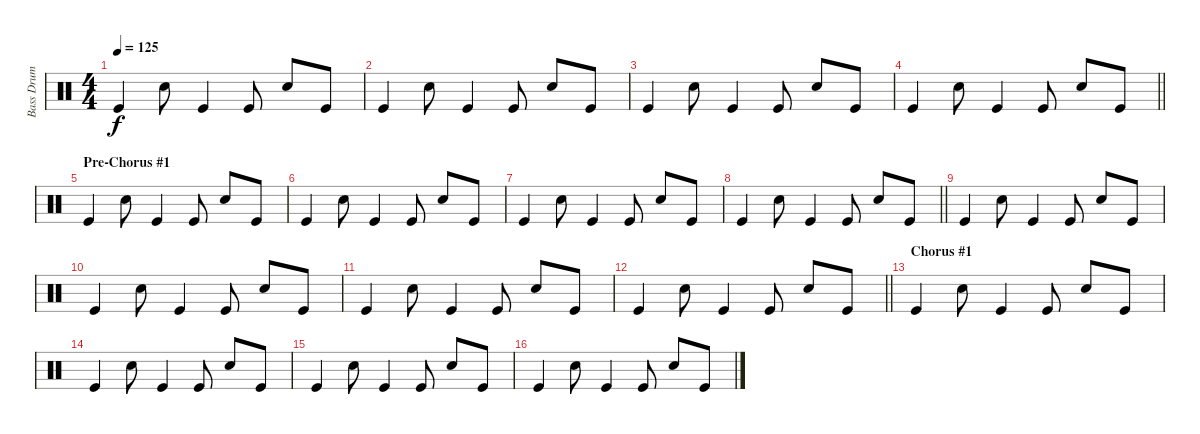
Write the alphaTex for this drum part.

\track ("Bass Drum and Clap" "Bass Drum ") {instrument percussion}
\staff {score}
\articulation defaults
\ts (4 4)
\tempo 125
\clef neutral
\ks c "Kick (hit)".4{dy f} "Hand Clap (hit)".8 "Kick (hit)".4 "Kick (hit)".8 "Hand Clap (hit)".8 "Kick (hit)".8
|
"Kick (hit)".4 "Hand Clap (hit)".8 "Kick (hit)".4 "Kick (hit)".8 "Hand Clap (hit)".8 "Kick (hit)".8 |
"Kick (hit)".4 "Hand Clap (hit)".8 "Kick (hit)".4 "Kick (hit)".8 "Hand Clap (hit)".8 "Kick (hit)".8 |
\barLineRight lightlight "Kick (hit)".4 "Hand Clap (hit)".8 "Kick (hit)".4 "Kick (hit)".8 "Hand Clap (hit)".8 "Kick (hit)".8
|
\section ("" "Pre-Chorus #1")
"Kick (hit)".4 "Hand Clap (hit)".8 "Kick (hit)".4 "Kick (hit)".8 "Hand Clap (hit)".8 "Kick (hit)".8 |
"Kick (hit)".4 "Hand Clap (hit)".8 "Kick (hit)".4 "Kick (hit)".8 "Hand Clap (hit)".8 "Kick (hit)".8 |
"Kick (hit)".4 "Hand Clap (hit)".8 "Kick (hit)".4 "Kick (hit)".8 "Hand Clap (hit)".8 "Kick (hit)".8 |
\barLineRight lightlight "Kick (hit)".4 "Hand Clap (hit)".8 "Kick (hit)".4 "Kick (hit)".8 "Hand Clap (hit)".8 "Kick (hit)".8
|
"Kick (hit)".4 "Hand Clap (hit)".8 "Kick (hit)".4 "Kick (hit)".8 "Hand Clap (hit)".8 "Kick (hit)".8 |
"Kick (hit)".4 "Hand Clap (hit)".8 "Kick (hit)".4 "Kick (hit)".8 "Hand Clap (hit)".8 "Kick (hit)".8 |
"Kick (hit)".4 "Hand Clap (hit)".8 "Kick (hit)".4 "Kick (hit)".8 "Hand Clap (hit)".8 "Kick (hit)".8 |
\barLineRight lightlight "Kick (hit)".4 "Hand Clap (hit)".8 "Kick (hit)".4 "Kick (hit)".8 "Hand Clap (hit)".8 "Kick (hit)".8
|
\section ("" "Chorus #1")
"Kick (hit)".4 "Hand Clap (hit)".8 "Kick (hit)".4 "Kick (hit)".8 "Hand Clap (hit)".8 "Kick (hit)".8 |
"Kick (hit)".4 "Hand Clap (hit)".8 "Kick (hit)".4 "Kick (hit)".8 "Hand Clap (hit)".8 "Kick (hit)".8 |
"Kick (hit)".4 "Hand Clap (hit)".8 "Kick (hit)".4 "Kick (hit)".8 "Hand Clap (hit)".8 "Kick (hit)".8 |
"Kick (hit)".4 "Hand Clap (hit)".8 "Kick (hit)".4 "Kick (hit)".8 "Hand Clap (hit)".8 "Kick (hit)".8
